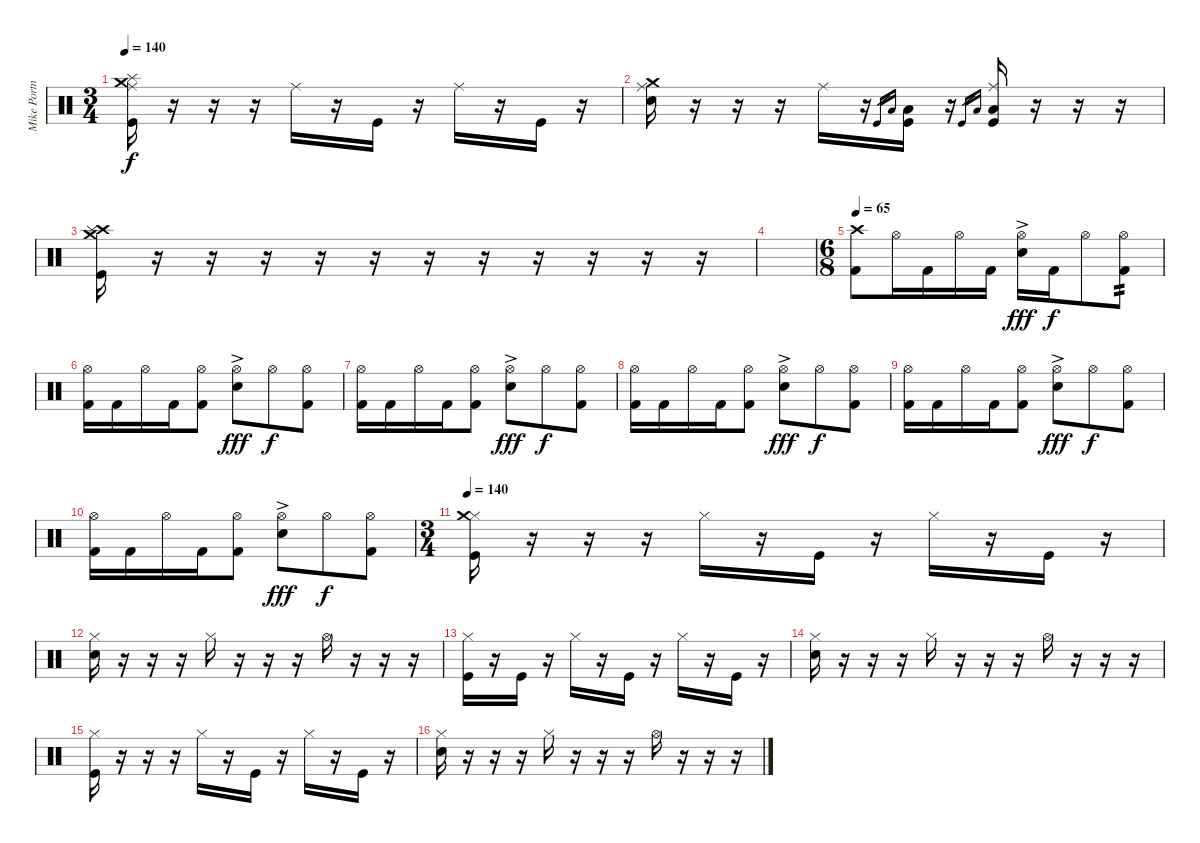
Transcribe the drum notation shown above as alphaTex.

\track ("Mike Portnoy" "Mike Portn") {instrument percussion}
\staff {score}
\articulation defaults
\ts (3 4)
\tempo 140
\clef neutral
\ks c
("Kick (hit)" "Crash medium (hit)" "Splash (hit)" "Ride (middle)").16{dy f} r.16 r.16 r.16 "Ride (middle)".16 r.16 "Kick (hit)".16 r.16 "Ride (middle)".16 r.16 "Kick (hit)".16 r.16 |
("Electric Snare (hit)" "Crash medium (hit)" "Ride (middle)").16 r.16 r.16 r.16 "Ride (middle)".16 r.16 "Kick (hit)".16{gr} "Low Floor Tom (hit)".16{gr} ("Kick (hit)" "Low Floor Tom (hit)").16 r.16 "Kick (hit)".16{gr} "Low Floor Tom (hit)".16{gr} ("Kick (hit)" "Low Floor Tom (hit)" "Ride (middle)").16 r.16 r.16 r.16 |
("Kick (hit)" "Crash medium (hit)" "Crash high (hit)" "Splash (hit)").16 r.16 r.16 r.16 r.16 r.16 r.16 r.16 r.16 r.16 r.16 r.16 |
|
\ts (6 8)
\tempo 65
("Crash high (hit)" "Kick (hit) 2").8 "Hi-Hat (open)".16 "Kick (hit) 2".16 "Hi-Hat (open)".16 "Kick (hit) 2".16 ("Hi-Hat (open)" "Snare (hit) 2"{ac}).16{dy fff} "Kick (hit) 2".16{dy f} "Hi-Hat (open)".8 ("Hi-Hat (open)" "Kick (hit) 2").8{tp 2} |
("Hi-Hat (open)" "Kick (hit) 2").16 "Kick (hit) 2".16 "Hi-Hat (open)".16 "Kick (hit) 2".16 ("Hi-Hat (open)" "Kick (hit) 2").8 ("Hi-Hat (open)" "Snare (hit) 2"{ac}).8{dy fff} "Hi-Hat (open)".8{dy f} ("Hi-Hat (open)" "Kick (hit) 2").8 |
("Hi-Hat (open)" "Kick (hit) 2").16 "Kick (hit) 2".16 "Hi-Hat (open)".16 "Kick (hit) 2".16 ("Hi-Hat (open)" "Kick (hit) 2").8 ("Hi-Hat (open)" "Snare (hit) 2"{ac}).8{dy fff} "Hi-Hat (open)".8{dy f} ("Hi-Hat (open)" "Kick (hit) 2").8 |
("Hi-Hat (open)" "Kick (hit) 2").16 "Kick (hit) 2".16 "Hi-Hat (open)".16 "Kick (hit) 2".16 ("Hi-Hat (open)" "Kick (hit) 2").8 ("Hi-Hat (open)" "Snare (hit) 2"{ac}).8{dy fff} "Hi-Hat (open)".8{dy f} ("Hi-Hat (open)" "Kick (hit) 2").8 |
("Hi-Hat (open)" "Kick (hit) 2").16 "Kick (hit) 2".16 "Hi-Hat (open)".16 "Kick (hit) 2".16 ("Hi-Hat (open)" "Kick (hit) 2").8 ("Hi-Hat (open)" "Snare (hit) 2"{ac}).8{dy fff} "Hi-Hat (open)".8{dy f} ("Hi-Hat (open)" "Kick (hit) 2").8 |
("Hi-Hat (open)" "Kick (hit) 2").16 "Kick (hit) 2".16 "Hi-Hat (open)".16 "Kick (hit) 2".16 ("Hi-Hat (open)" "Kick (hit) 2").8 ("Hi-Hat (open)" "Snare (hit) 2"{ac}).8{dy fff} "Hi-Hat (open)".8{dy f} ("Hi-Hat (open)" "Kick (hit) 2").8 |
\ts (3 4)
\tempo 140
("Kick (hit)" "Hi-Hat (closed)" "Crash medium (hit)").16 r.16 r.16 r.16 "Hi-Hat (closed)".16 r.16 "Kick (hit)".16 r.16 "Hi-Hat (closed)".16 r.16 "Kick (hit)".16 r.16 |
("Electric Snare (hit)" "Hi-Hat (closed)").16 r.16 r.16 r.16 "Hi-Hat (closed)".16 r.16 r.16 r.16 "Hi-Hat (open)".16 r.16 r.16 r.16 |
("Kick (hit)" "Hi-Hat (closed)").16 r.16 "Kick (hit)".16 r.16 "Hi-Hat (closed)".16 r.16 "Kick (hit)".16 r.16 "Hi-Hat (closed)".16 r.16 "Kick (hit)".16 r.16 |
("Electric Snare (hit)" "Hi-Hat (closed)").16 r.16 r.16 r.16 "Hi-Hat (closed)".16 r.16 r.16 r.16 "Hi-Hat (open)".16 r.16 r.16 r.16 |
("Kick (hit)" "Hi-Hat (closed)").16 r.16 r.16 r.16 "Hi-Hat (closed)".16 r.16 "Kick (hit)".16 r.16 "Hi-Hat (closed)".16 r.16 "Kick (hit)".16 r.16 |
("Electric Snare (hit)" "Hi-Hat (closed)").16 r.16 r.16 r.16 "Hi-Hat (closed)".16 r.16 r.16 r.16 "Hi-Hat (open)".16 r.16 r.16 r.16
